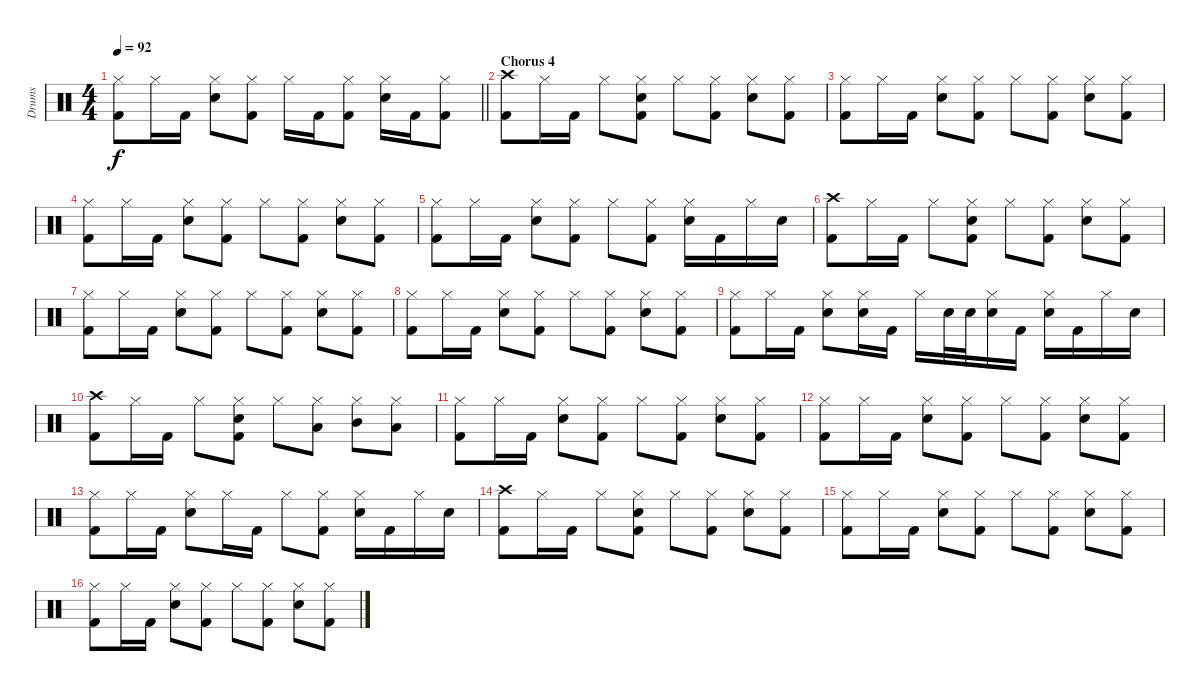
\track ("Drums" "Drums") {instrument percussion}
\staff {score}
\articulation defaults
\ts (4 4)
\tempo 92
\clef neutral
\barLineRight lightlight
\ks c
("Hi-Hat (closed)" "Kick (hit) 2").8{dy f} "Hi-Hat (closed)".16 "Kick (hit) 2".16 ("Hi-Hat (closed)" "Electric Snare (hit)").8 ("Hi-Hat (closed)" "Kick (hit) 2").8 "Hi-Hat (closed)".16 "Kick (hit) 2".16 ("Hi-Hat (closed)" "Kick (hit) 2").8 ("Hi-Hat (closed)" "Electric Snare (hit)").16 "Kick (hit) 2".16 ("Hi-Hat (closed)" "Kick (hit) 2").8 |
\section ("" "Chorus 4")
("Crash high (hit)" "Kick (hit) 2").8 "Hi-Hat (closed)".16 "Kick (hit) 2".16 "Hi-Hat (closed)".8 ("Hi-Hat (closed)" "Electric Snare (hit)" "Kick (hit) 2").8 "Hi-Hat (closed)".8 ("Hi-Hat (closed)" "Kick (hit) 2").8 ("Hi-Hat (closed)" "Electric Snare (hit)").8 ("Hi-Hat (closed)" "Kick (hit) 2").8 |
("Hi-Hat (closed)" "Kick (hit) 2").8 "Hi-Hat (closed)".16 "Kick (hit) 2".16 ("Hi-Hat (closed)" "Electric Snare (hit)").8 ("Hi-Hat (closed)" "Kick (hit) 2").8 "Hi-Hat (closed)".8 ("Hi-Hat (closed)" "Kick (hit) 2").8 ("Hi-Hat (closed)" "Electric Snare (hit)").8 ("Hi-Hat (closed)" "Kick (hit) 2").8 |
("Hi-Hat (closed)" "Kick (hit) 2").8 "Hi-Hat (closed)".16 "Kick (hit) 2".16 ("Hi-Hat (closed)" "Electric Snare (hit)").8 ("Hi-Hat (closed)" "Kick (hit) 2").8 "Hi-Hat (closed)".8 ("Hi-Hat (closed)" "Kick (hit) 2").8 ("Hi-Hat (closed)" "Electric Snare (hit)").8 ("Hi-Hat (closed)" "Kick (hit) 2").8 |
("Hi-Hat (closed)" "Kick (hit) 2").8 "Hi-Hat (closed)".16 "Kick (hit) 2".16 ("Hi-Hat (closed)" "Electric Snare (hit)").8 ("Hi-Hat (closed)" "Kick (hit) 2").8 "Hi-Hat (closed)".8 ("Hi-Hat (closed)" "Kick (hit) 2").8 ("Hi-Hat (closed)" "Electric Snare (hit)").16 "Kick (hit) 2".16 "Hi-Hat (closed)".16 "Electric Snare (hit)".16 |
("Crash high (hit)" "Kick (hit) 2").8 "Hi-Hat (closed)".16 "Kick (hit) 2".16 "Hi-Hat (closed)".8 ("Hi-Hat (closed)" "Electric Snare (hit)" "Kick (hit) 2").8 "Hi-Hat (closed)".8 ("Hi-Hat (closed)" "Kick (hit) 2").8 ("Hi-Hat (closed)" "Electric Snare (hit)").8 ("Hi-Hat (closed)" "Kick (hit) 2").8 |
("Hi-Hat (closed)" "Kick (hit) 2").8 "Hi-Hat (closed)".16 "Kick (hit) 2".16 ("Hi-Hat (closed)" "Electric Snare (hit)").8 ("Hi-Hat (closed)" "Kick (hit) 2").8 "Hi-Hat (closed)".8 ("Hi-Hat (closed)" "Kick (hit) 2").8 ("Hi-Hat (closed)" "Electric Snare (hit)").8 ("Hi-Hat (closed)" "Kick (hit) 2").8 |
("Hi-Hat (closed)" "Kick (hit) 2").8 "Hi-Hat (closed)".16 "Kick (hit) 2".16 ("Hi-Hat (closed)" "Electric Snare (hit)").8 ("Hi-Hat (closed)" "Kick (hit) 2").8 "Hi-Hat (closed)".8 ("Hi-Hat (closed)" "Kick (hit) 2").8 ("Hi-Hat (closed)" "Electric Snare (hit)").8 ("Hi-Hat (closed)" "Kick (hit) 2").8 |
("Hi-Hat (closed)" "Kick (hit) 2").8 "Hi-Hat (closed)".16 "Kick (hit) 2".16 ("Hi-Hat (closed)" "Electric Snare (hit)").8 ("Hi-Hat (closed)" "Electric Snare (hit)").16 "Kick (hit) 2".16 "Hi-Hat (closed)".16 "Electric Snare (hit)".32 "Electric Snare (hit)".32 ("Hi-Hat (closed)" "Electric Snare (hit)").16 "Kick (hit) 2".16 ("Hi-Hat (closed)" "Electric Snare (hit)").16 "Kick (hit) 2".16 "Hi-Hat (closed)".16 "Electric Snare (hit)".16 |
("Crash high (hit)" "Kick (hit) 2").8 "Hi-Hat (closed)".16 "Kick (hit) 2".16 "Hi-Hat (closed)".8 ("Hi-Hat (closed)" "Electric Snare (hit)" "Kick (hit) 2").8 "Hi-Hat (closed)".8 ("Hi-Hat (closed)" "Low Floor Tom (hit)").8 ("Hi-Hat (closed)" "Mid Tom (hit)").8 ("Hi-Hat (closed)" "Low Floor Tom (hit)").8 |
("Hi-Hat (closed)" "Kick (hit) 2").8 "Hi-Hat (closed)".16 "Kick (hit) 2".16 ("Hi-Hat (closed)" "Electric Snare (hit)").8 ("Hi-Hat (closed)" "Kick (hit) 2").8 "Hi-Hat (closed)".8 ("Hi-Hat (closed)" "Kick (hit) 2").8 ("Hi-Hat (closed)" "Electric Snare (hit)").8 ("Hi-Hat (closed)" "Kick (hit) 2").8 |
("Hi-Hat (closed)" "Kick (hit) 2").8 "Hi-Hat (closed)".16 "Kick (hit) 2".16 ("Hi-Hat (closed)" "Electric Snare (hit)").8 ("Hi-Hat (closed)" "Kick (hit) 2").8 "Hi-Hat (closed)".8 ("Hi-Hat (closed)" "Kick (hit) 2").8 ("Hi-Hat (closed)" "Electric Snare (hit)").8 ("Hi-Hat (closed)" "Kick (hit) 2").8 |
("Hi-Hat (closed)" "Kick (hit) 2").8 "Hi-Hat (closed)".16 "Kick (hit) 2".16 ("Hi-Hat (closed)" "Electric Snare (hit)").8 "Hi-Hat (closed)".16 "Kick (hit) 2".16 "Hi-Hat (closed)".8 ("Hi-Hat (closed)" "Kick (hit) 2").8 ("Hi-Hat (closed)" "Electric Snare (hit)").16 "Kick (hit) 2".16 "Hi-Hat (closed)".16 "Electric Snare (hit)".16 |
("Crash high (hit)" "Kick (hit) 2").8 "Hi-Hat (closed)".16 "Kick (hit) 2".16 "Hi-Hat (closed)".8 ("Hi-Hat (closed)" "Electric Snare (hit)" "Kick (hit) 2").8 "Hi-Hat (closed)".8 ("Hi-Hat (closed)" "Kick (hit) 2").8 ("Hi-Hat (closed)" "Electric Snare (hit)").8 ("Hi-Hat (closed)" "Kick (hit) 2").8 |
("Hi-Hat (closed)" "Kick (hit) 2").8 "Hi-Hat (closed)".16 "Kick (hit) 2".16 ("Hi-Hat (closed)" "Electric Snare (hit)").8 ("Hi-Hat (closed)" "Kick (hit) 2").8 "Hi-Hat (closed)".8 ("Hi-Hat (closed)" "Kick (hit) 2").8 ("Hi-Hat (closed)" "Electric Snare (hit)").8 ("Hi-Hat (closed)" "Kick (hit) 2").8 |
("Hi-Hat (closed)" "Kick (hit) 2").8 "Hi-Hat (closed)".16 "Kick (hit) 2".16 ("Hi-Hat (closed)" "Electric Snare (hit)").8 ("Hi-Hat (closed)" "Kick (hit) 2").8 "Hi-Hat (closed)".8 ("Hi-Hat (closed)" "Kick (hit) 2").8 ("Hi-Hat (closed)" "Electric Snare (hit)").8 ("Hi-Hat (closed)" "Kick (hit) 2").8
